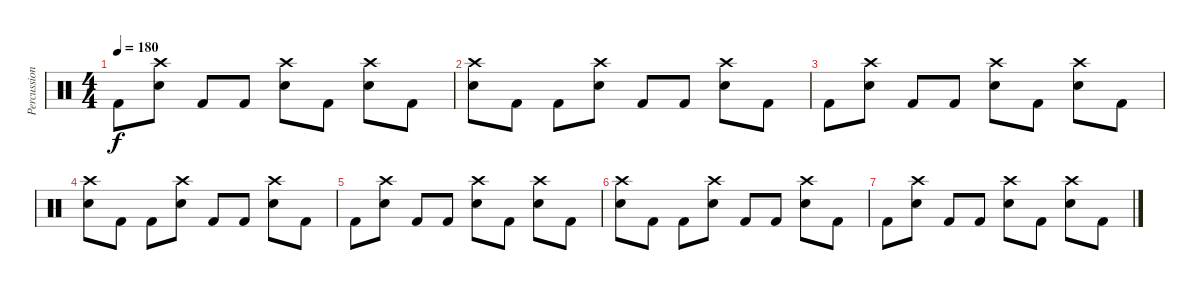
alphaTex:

\track ("Percussion" "Percussion") {instrument percussion}
\staff {score}
\articulation defaults
\ts (4 4)
\tempo 180
\clef neutral
\ks c "Kick (hit) 2".8{dy f}
("Crash high (hit)" "Electric Snare (hit)").8 "Kick (hit) 2".8 "Kick (hit) 2".8 ("Crash high (hit)" "Electric Snare (hit)").8 "Kick (hit) 2".8 ("Crash high (hit)" "Electric Snare (hit)").8 "Kick (hit) 2".8 |
("Crash high (hit)" "Electric Snare (hit)").8 "Kick (hit) 2".8 "Kick (hit) 2".8 ("Crash high (hit)" "Electric Snare (hit)").8 "Kick (hit) 2".8 "Kick (hit) 2".8 ("Crash high (hit)" "Electric Snare (hit)").8 "Kick (hit) 2".8 |
"Kick (hit) 2".8 ("Crash high (hit)" "Electric Snare (hit)").8 "Kick (hit) 2".8 "Kick (hit) 2".8 ("Crash high (hit)" "Electric Snare (hit)").8 "Kick (hit) 2".8 ("Crash high (hit)" "Electric Snare (hit)").8 "Kick (hit) 2".8 |
("Crash high (hit)" "Electric Snare (hit)").8 "Kick (hit) 2".8 "Kick (hit) 2".8 ("Crash high (hit)" "Electric Snare (hit)").8 "Kick (hit) 2".8 "Kick (hit) 2".8 ("Crash high (hit)" "Electric Snare (hit)").8 "Kick (hit) 2".8 |
"Kick (hit) 2".8 ("Crash high (hit)" "Electric Snare (hit)").8 "Kick (hit) 2".8 "Kick (hit) 2".8 ("Crash high (hit)" "Electric Snare (hit)").8 "Kick (hit) 2".8 ("Crash high (hit)" "Electric Snare (hit)").8 "Kick (hit) 2".8 |
("Crash high (hit)" "Electric Snare (hit)").8 "Kick (hit) 2".8 "Kick (hit) 2".8 ("Crash high (hit)" "Electric Snare (hit)").8 "Kick (hit) 2".8 "Kick (hit) 2".8 ("Crash high (hit)" "Electric Snare (hit)").8 "Kick (hit) 2".8 |
"Kick (hit) 2".8 ("Crash high (hit)" "Electric Snare (hit)").8 "Kick (hit) 2".8 "Kick (hit) 2".8 ("Crash high (hit)" "Electric Snare (hit)").8 "Kick (hit) 2".8 ("Crash high (hit)" "Electric Snare (hit)").8 "Kick (hit) 2".8
